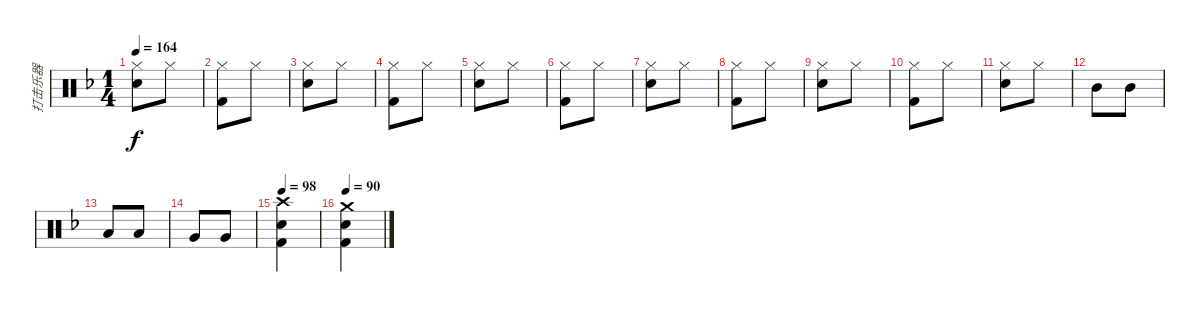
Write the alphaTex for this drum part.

\track ("打击乐器" "打击乐器") {instrument percussion}
\staff {score}
\articulation defaults
\ts (1 4)
\tempo 164
\clef neutral
\ks f
("Hi-Hat (closed)" "Snare (hit) 2").8{dy f} "Hi-Hat (closed)".8 |
("Hi-Hat (closed)" "Kick (hit) 2").8 "Hi-Hat (closed)".8 |
("Hi-Hat (closed)" "Snare (hit) 2").8 "Hi-Hat (closed)".8 |
("Hi-Hat (closed)" "Kick (hit) 2").8 "Hi-Hat (closed)".8 |
("Hi-Hat (closed)" "Snare (hit) 2").8 "Hi-Hat (closed)".8 |
("Hi-Hat (closed)" "Kick (hit) 2").8 "Hi-Hat (closed)".8 |
("Hi-Hat (closed)" "Snare (hit) 2").8 "Hi-Hat (closed)".8 |
("Hi-Hat (closed)" "Kick (hit) 2").8 "Hi-Hat (closed)".8 |
("Hi-Hat (closed)" "Snare (hit) 2").8 "Hi-Hat (closed)".8 |
("Hi-Hat (closed)" "Kick (hit) 2").8 "Hi-Hat (closed)".8 |
("Hi-Hat (closed)" "Snare (hit) 2").8 "Hi-Hat (closed)".8 |
"Mid Tom (hit)".8 "Mid Tom (hit)".8 |
"Low Tom (hit)".8 "Low Tom (hit)".8 |
"Very Low Tom (hit)".8 "Very Low Tom (hit)".8 |
\tempo 98
("Crash high (hit)" "Snare (hit) 2" "Kick (hit) 2").4 |
\tempo 90
("Crash medium (hit)" "Snare (hit) 2" "Kick (hit) 2").4
